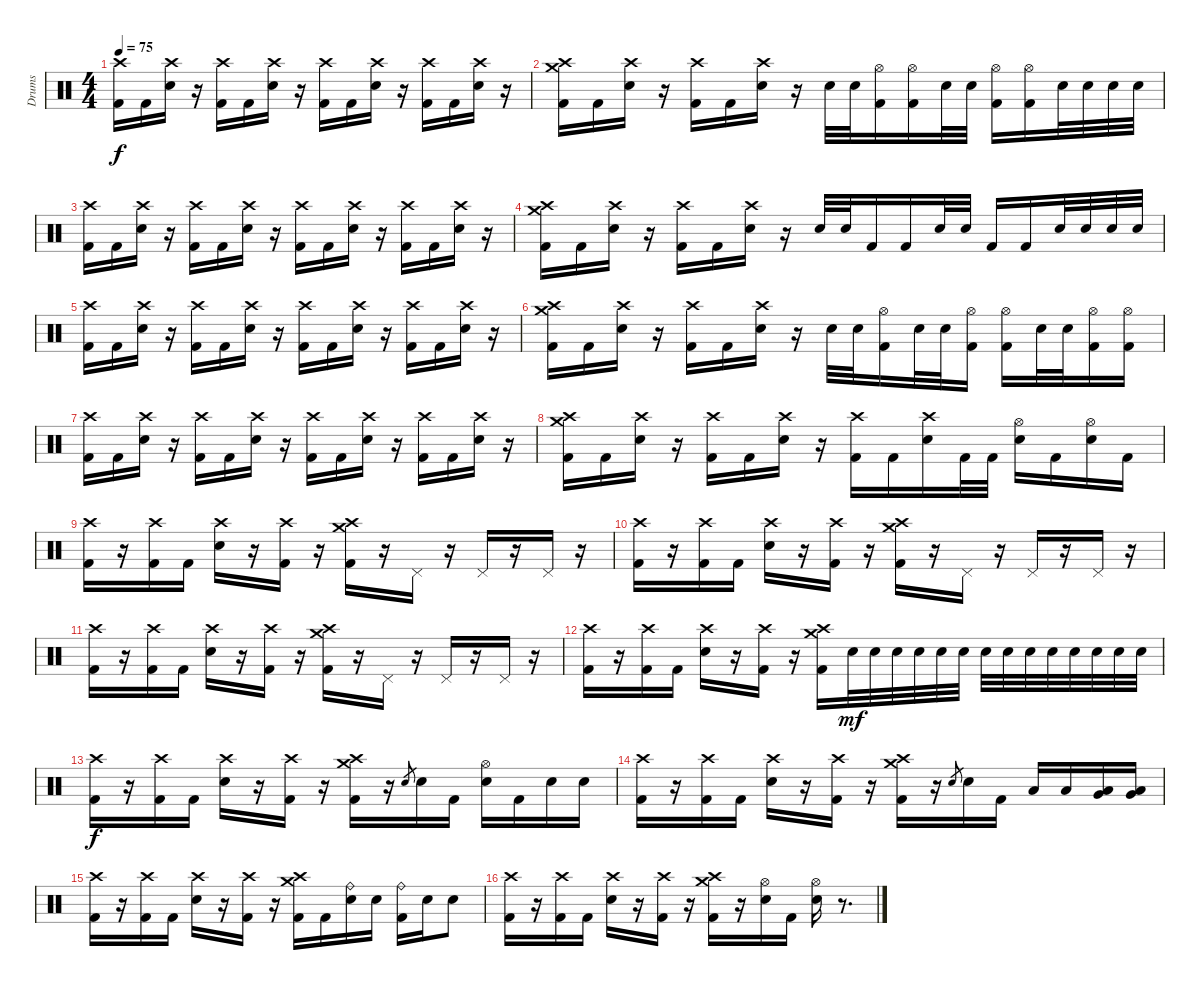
\track ("Drums" "Drums") {instrument percussion}
\staff {score}
\articulation defaults
\ts (4 4)
\tempo 75
\clef neutral
\ks c
("Crash high (hit)" "Kick (hit) 2").16{dy f} "Kick (hit) 2".16 ("Crash high (hit)" "Electric Snare (hit)").16 r.16 ("Crash high (hit)" "Kick (hit) 2").16 "Kick (hit) 2".16 ("Crash high (hit)" "Electric Snare (hit)").16 r.16 ("Crash high (hit)" "Kick (hit) 2").16 "Kick (hit) 2".16 ("Crash high (hit)" "Electric Snare (hit)").16 r.16 ("Crash high (hit)" "Kick (hit) 2").16 "Kick (hit) 2".16 ("Crash high (hit)" "Electric Snare (hit)").16 r.16 |
("Crash high (hit)" "Crash medium (hit)" "Kick (hit) 2").16 "Kick (hit) 2".16 ("Crash high (hit)" "Electric Snare (hit)").16 r.16 ("Crash high (hit)" "Kick (hit) 2").16 "Kick (hit) 2".16 ("Crash high (hit)" "Electric Snare (hit)").16 r.16 "Electric Snare (hit)".32 "Electric Snare (hit)".32 ("Hi-Hat (open)" "Kick (hit) 2").16 ("Hi-Hat (open)" "Kick (hit) 2").16 "Electric Snare (hit)".32 "Electric Snare (hit)".32 ("Hi-Hat (open)" "Kick (hit) 2").16 ("Hi-Hat (open)" "Kick (hit) 2").16 "Electric Snare (hit)".32 "Electric Snare (hit)".32 "Electric Snare (hit)".32 "Electric Snare (hit)".32 |
("Crash high (hit)" "Kick (hit) 2").16 "Kick (hit) 2".16 ("Crash high (hit)" "Electric Snare (hit)").16 r.16 ("Crash high (hit)" "Kick (hit) 2").16 "Kick (hit) 2".16 ("Crash high (hit)" "Electric Snare (hit)").16 r.16 ("Crash high (hit)" "Kick (hit) 2").16 "Kick (hit) 2".16 ("Crash high (hit)" "Electric Snare (hit)").16 r.16 ("Crash high (hit)" "Kick (hit) 2").16 "Kick (hit) 2".16 ("Crash high (hit)" "Electric Snare (hit)").16 r.16 |
("Crash high (hit)" "Crash medium (hit)" "Kick (hit) 2").16 "Kick (hit) 2".16 ("Crash high (hit)" "Electric Snare (hit)").16 r.16 ("Crash high (hit)" "Kick (hit) 2").16 "Kick (hit) 2".16 ("Crash high (hit)" "Electric Snare (hit)").16 r.16 "Electric Snare (hit)".32 "Electric Snare (hit)".32 "Kick (hit) 2".16 "Kick (hit) 2".16 "Electric Snare (hit)".32 "Electric Snare (hit)".32 "Kick (hit) 2".16 "Kick (hit) 2".16 "Electric Snare (hit)".32 "Electric Snare (hit)".32 "Electric Snare (hit)".32 "Electric Snare (hit)".32 |
("Crash high (hit)" "Kick (hit) 2").16 "Kick (hit) 2".16 ("Crash high (hit)" "Electric Snare (hit)").16 r.16 ("Crash high (hit)" "Kick (hit) 2").16 "Kick (hit) 2".16 ("Crash high (hit)" "Electric Snare (hit)").16 r.16 ("Crash high (hit)" "Kick (hit) 2").16 "Kick (hit) 2".16 ("Crash high (hit)" "Electric Snare (hit)").16 r.16 ("Crash high (hit)" "Kick (hit) 2").16 "Kick (hit) 2".16 ("Crash high (hit)" "Electric Snare (hit)").16 r.16 |
("Crash high (hit)" "Crash medium (hit)" "Kick (hit) 2").16 "Kick (hit) 2".16 ("Crash high (hit)" "Electric Snare (hit)").16 r.16 ("Crash high (hit)" "Kick (hit) 2").16 "Kick (hit) 2".16 ("Crash high (hit)" "Electric Snare (hit)").16 r.16 "Electric Snare (hit)".32 "Electric Snare (hit)".32 ("Hi-Hat (open)" "Kick (hit) 2").16 "Electric Snare (hit)".32 "Electric Snare (hit)".32 ("Hi-Hat (open)" "Kick (hit) 2").16 ("Hi-Hat (open)" "Kick (hit) 2").16 "Electric Snare (hit)".32 "Electric Snare (hit)".32 ("Hi-Hat (open)" "Kick (hit) 2").16 ("Hi-Hat (open)" "Kick (hit) 2").16 |
("Crash high (hit)" "Kick (hit) 2").16 "Kick (hit) 2".16 ("Crash high (hit)" "Electric Snare (hit)").16 r.16 ("Crash high (hit)" "Kick (hit) 2").16 "Kick (hit) 2".16 ("Crash high (hit)" "Electric Snare (hit)").16 r.16 ("Crash high (hit)" "Kick (hit) 2").16 "Kick (hit) 2".16 ("Crash high (hit)" "Electric Snare (hit)").16 r.16 ("Crash high (hit)" "Kick (hit) 2").16 "Kick (hit) 2".16 ("Crash high (hit)" "Electric Snare (hit)").16 r.16 |
("Crash high (hit)" "Crash medium (hit)" "Kick (hit) 2").16 "Kick (hit) 2".16 ("Crash high (hit)" "Electric Snare (hit)").16 r.16 ("Crash high (hit)" "Kick (hit) 2").16 "Kick (hit) 2".16 ("Crash high (hit)" "Electric Snare (hit)").16 r.16 ("Crash high (hit)" "Kick (hit) 2").16 "Kick (hit) 2".16 ("Crash high (hit)" "Electric Snare (hit)").16 "Kick (hit) 2".32 "Kick (hit) 2".32 ("Hi-Hat (open)" "Electric Snare (hit)").16 "Kick (hit) 2".16 ("Hi-Hat (open)" "Electric Snare (hit)").16 "Kick (hit) 2".16 |
("Crash high (hit)" "Kick (hit) 2").16 r.16 ("Crash high (hit)" "Kick (hit) 2").16 "Kick (hit) 2".16 ("Crash high (hit)" "Electric Snare (hit)").16 r.16 ("Crash high (hit)" "Kick (hit) 2").16 r.16 ("Crash medium (hit)" "Crash high (hit)" "Kick (hit) 2").16 r.16 "Pedal Hi-Hat (hit)".16 r.16 "Pedal Hi-Hat (hit)".16 r.16 "Pedal Hi-Hat (hit)".16 r.16 |
("Crash high (hit)" "Kick (hit) 2").16 r.16 ("Crash high (hit)" "Kick (hit) 2").16 "Kick (hit) 2".16 ("Crash high (hit)" "Electric Snare (hit)").16 r.16 ("Crash high (hit)" "Kick (hit) 2").16 r.16 ("Crash medium (hit)" "Crash high (hit)" "Kick (hit) 2").16 r.16 "Pedal Hi-Hat (hit)".16 r.16 "Pedal Hi-Hat (hit)".16 r.16 "Pedal Hi-Hat (hit)".16 r.16 |
("Crash high (hit)" "Kick (hit) 2").16 r.16 ("Crash high (hit)" "Kick (hit) 2").16 "Kick (hit) 2".16 ("Crash high (hit)" "Electric Snare (hit)").16 r.16 ("Crash high (hit)" "Kick (hit) 2").16 r.16 ("Crash medium (hit)" "Crash high (hit)" "Kick (hit) 2").16 r.16 "Pedal Hi-Hat (hit)".16 r.16 "Pedal Hi-Hat (hit)".16 r.16 "Pedal Hi-Hat (hit)".16 r.16 |
("Crash high (hit)" "Kick (hit) 2").16 r.16 ("Crash high (hit)" "Kick (hit) 2").16 "Kick (hit) 2".16 ("Crash high (hit)" "Electric Snare (hit)").16 r.16 ("Crash high (hit)" "Kick (hit) 2").16 r.16 ("Crash medium (hit)" "Crash high (hit)" "Kick (hit) 2").16 "Electric Snare (hit)".32{dy mf} "Electric Snare (hit)".32 "Electric Snare (hit)".32 "Electric Snare (hit)".32 "Electric Snare (hit)".32 "Electric Snare (hit)".32 "Electric Snare (hit)".32 "Electric Snare (hit)".32 "Electric Snare (hit)".32 "Electric Snare (hit)".32 "Electric Snare (hit)".32 "Electric Snare (hit)".32 "Electric Snare (hit)".32 "Electric Snare (hit)".32 |
("Crash high (hit)" "Kick (hit) 2").16{dy f} r.16 ("Crash high (hit)" "Kick (hit) 2").16 "Kick (hit) 2".16 ("Crash high (hit)" "Electric Snare (hit)").16 r.16 ("Crash high (hit)" "Kick (hit) 2").16 r.16 ("Crash medium (hit)" "Crash high (hit)" "Kick (hit) 2").16 r.16 "Electric Snare (hit)".8{gr} "Electric Snare (hit)".16 "Kick (hit) 2".16 ("Hi-Hat (open)" "Electric Snare (hit)").16 "Kick (hit) 2".16 "Electric Snare (hit)".16 "Electric Snare (hit)".16 |
("Crash high (hit)" "Kick (hit) 2").16 r.16 ("Crash high (hit)" "Kick (hit) 2").16 "Kick (hit) 2".16 ("Crash high (hit)" "Electric Snare (hit)").16 r.16 ("Crash high (hit)" "Kick (hit) 2").16 r.16 ("Crash medium (hit)" "Crash high (hit)" "Kick (hit) 2").16 r.16 "Electric Snare (hit)".8{gr} "Electric Snare (hit)".16 "Kick (hit) 2".16 "Low Tom (hit)".16 "Low Tom (hit)".16 ("Very Low Tom (hit)" "Low Floor Tom (hit)").16 ("Very Low Tom (hit)" "Low Floor Tom (hit)").16 |
("Crash high (hit)" "Kick (hit) 2").16 r.16 ("Crash high (hit)" "Kick (hit) 2").16 "Kick (hit) 2".16 ("Crash high (hit)" "Electric Snare (hit)").16 r.16 ("Crash high (hit)" "Kick (hit) 2").16 r.16 ("Crash medium (hit)" "Crash high (hit)" "Kick (hit) 2").16 "Kick (hit) 2".16 ("Ride (bell)" "Electric Snare (hit)").16 "Electric Snare (hit)".16 ("Ride (bell)" "Kick (hit) 2").16 "Electric Snare (hit)".16 "Electric Snare (hit)".8 |
("Crash high (hit)" "Kick (hit) 2").16 r.16 ("Crash high (hit)" "Kick (hit) 2").16 "Kick (hit) 2".16 ("Crash high (hit)" "Electric Snare (hit)").16 r.16 ("Crash high (hit)" "Kick (hit) 2").16 r.16 ("Crash medium (hit)" "Crash high (hit)" "Kick (hit) 2").16 r.16 ("Hi-Hat (open)" "Electric Snare (hit)").16 "Kick (hit) 2".16 ("Hi-Hat (open)" "Electric Snare (hit)").16 r.8{d}
